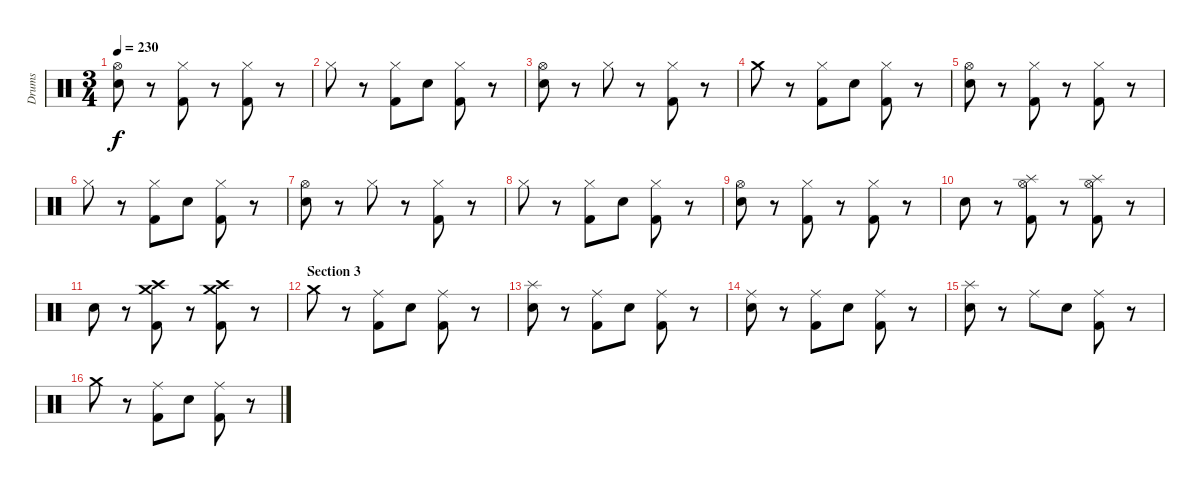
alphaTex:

\track ("Drums" "Drums") {instrument percussion}
\staff {score}
\articulation defaults
\ts (3 4)
\tempo 230
\clef neutral
\ks c
("Hi-Hat (open)" "Electric Snare (hit)").8{dy f} r.8 ("Hi-Hat (closed)" "Kick (hit) 2").8 r.8 ("Hi-Hat (closed)" "Kick (hit) 2").8 r.8 |
"Hi-Hat (closed)".8 r.8 ("Hi-Hat (closed)" "Kick (hit) 2").8 "Electric Snare (hit)".8 ("Hi-Hat (closed)" "Kick (hit) 2").8 r.8 |
("Hi-Hat (open)" "Electric Snare (hit)").8 r.8 "Hi-Hat (closed)".8 r.8 ("Hi-Hat (closed)" "Kick (hit) 2").8 r.8 |
"Crash medium (hit)".8 r.8 ("Hi-Hat (closed)" "Kick (hit) 2").8 "Electric Snare (hit)".8 ("Hi-Hat (closed)" "Kick (hit) 2").8 r.8 |
("Hi-Hat (open)" "Electric Snare (hit)").8 r.8 ("Hi-Hat (closed)" "Kick (hit) 2").8 r.8 ("Hi-Hat (closed)" "Kick (hit) 2").8 r.8 |
"Hi-Hat (closed)".8 r.8 ("Hi-Hat (closed)" "Kick (hit) 2").8 "Electric Snare (hit)".8 ("Hi-Hat (closed)" "Kick (hit) 2").8 r.8 |
("Hi-Hat (open)" "Electric Snare (hit)").8 r.8 "Hi-Hat (closed)".8 r.8 ("Hi-Hat (closed)" "Kick (hit) 2").8 r.8 |
"Hi-Hat (closed)".8 r.8 ("Hi-Hat (closed)" "Kick (hit) 2").8 "Electric Snare (hit)".8 ("Hi-Hat (closed)" "Kick (hit) 2").8 r.8 |
("Hi-Hat (open)" "Electric Snare (hit)").8 r.8 ("Hi-Hat (closed)" "Kick (hit) 2").8 r.8 ("Hi-Hat (closed)" "Kick (hit) 2").8 r.8 |
"Electric Snare (hit)".8 r.8 ("Splash (hit)" "Hi-Hat (open)" "Kick (hit) 2").8 r.8 ("Splash (hit)" "Hi-Hat (open)" "Kick (hit) 2").8 r.8 |
"Electric Snare (hit)".8 r.8 ("Crash high (hit)" "Crash medium (hit)" "Kick (hit) 2").8 r.8 ("Crash high (hit)" "Crash medium (hit)" "Kick (hit) 2").8 r.8 |
\section ("" "Section 3")
"Crash medium (hit)".8 r.8 ("Ride (middle)" "Kick (hit) 2").8 "Electric Snare (hit)".8 ("Ride (middle)" "Kick (hit) 2").8 r.8 |
("Splash (hit)" "Electric Snare (hit)").8 r.8 ("Ride (middle)" "Kick (hit) 2").8 "Electric Snare (hit)".8 ("Ride (middle)" "Kick (hit) 2").8 r.8 |
("Ride (middle)" "Electric Snare (hit)").8 r.8 ("Ride (middle)" "Kick (hit) 2").8 "Electric Snare (hit)".8 ("Ride (middle)" "Kick (hit) 2").8 r.8 |
("Splash (hit)" "Electric Snare (hit)").8 r.8 "Ride (middle)".8 "Electric Snare (hit)".8 ("Ride (middle)" "Kick (hit) 2").8 r.8 |
"Crash medium (hit)".8 r.8 ("Ride (middle)" "Kick (hit) 2").8 "Electric Snare (hit)".8 ("Ride (middle)" "Kick (hit) 2").8 r.8
